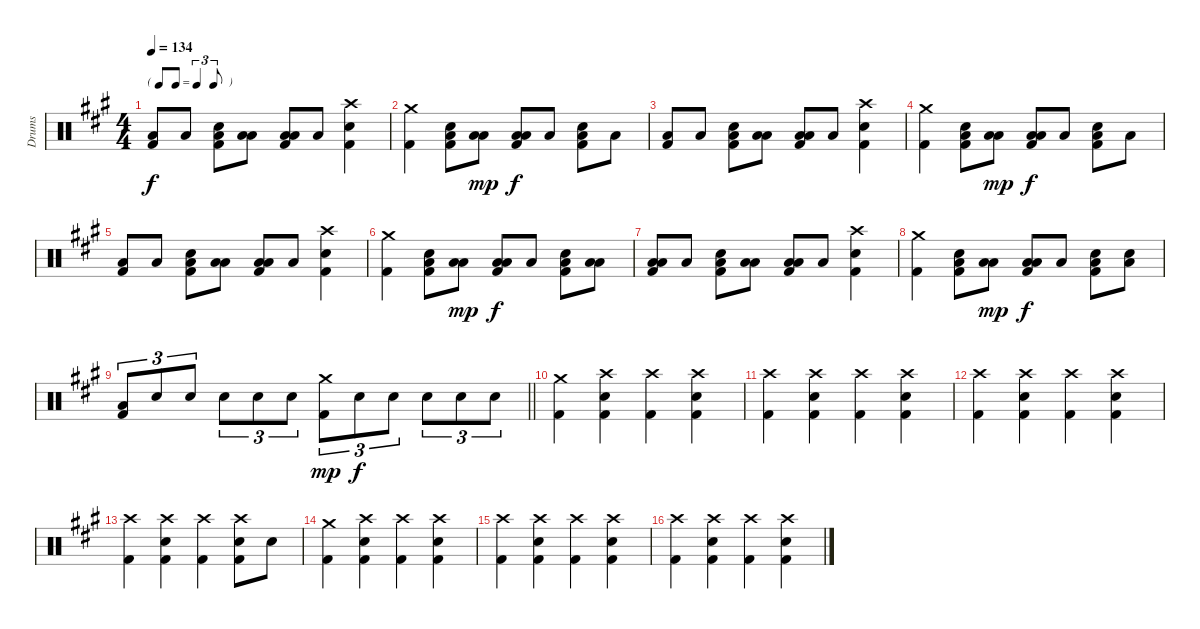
\track ("Drums" "Drums") {instrument percussion}
\staff {score}
\articulation defaults
\ts (4 4)
\tf triplet8th
\tempo 134
\clef neutral
\ks f#minor
("Low Floor Tom (hit)" "Kick (hit) 2").8{dy f} "Low Floor Tom (hit)".8 ("Electric Snare (hit)" "Low Floor Tom (hit)" "Kick (hit) 2").8 ("Low Tom (hit)" "Low Floor Tom (hit)").8 ("Low Tom (hit)" "Low Floor Tom (hit)" "Kick (hit) 2").8 "Low Floor Tom (hit)".8 ("Crash high (hit)" "Electric Snare (hit)" "Kick (hit) 2").4 |
("Crash medium (hit)" "Kick (hit) 2").4 ("Electric Snare (hit)" "Low Floor Tom (hit)" "Kick (hit) 2").8 ("Low Tom (hit)" "Low Floor Tom (hit)").8{dy mp} ("Low Tom (hit)" "Low Floor Tom (hit)" "Kick (hit) 2").8{dy f} "Low Floor Tom (hit)".8 ("Electric Snare (hit)" "Low Floor Tom (hit)" "Kick (hit) 2").8 "Low Floor Tom (hit)".8 |
("Low Floor Tom (hit)" "Kick (hit) 2").8 "Low Floor Tom (hit)".8 ("Electric Snare (hit)" "Low Floor Tom (hit)" "Kick (hit) 2").8 ("Low Tom (hit)" "Low Floor Tom (hit)").8 ("Low Tom (hit)" "Low Floor Tom (hit)" "Kick (hit) 2").8 "Low Floor Tom (hit)".8 ("Crash high (hit)" "Electric Snare (hit)" "Kick (hit) 2").4 |
("Crash medium (hit)" "Kick (hit) 2").4 ("Electric Snare (hit)" "Low Floor Tom (hit)" "Kick (hit) 2").8 ("Low Tom (hit)" "Low Floor Tom (hit)").8{dy mp} ("Low Tom (hit)" "Low Floor Tom (hit)" "Kick (hit) 2").8{dy f} "Low Floor Tom (hit)".8 ("Electric Snare (hit)" "Low Floor Tom (hit)" "Kick (hit) 2").8 "Low Floor Tom (hit)".8 |
("Low Floor Tom (hit)" "Kick (hit) 2").8 "Low Floor Tom (hit)".8 ("Electric Snare (hit)" "Low Floor Tom (hit)" "Kick (hit) 2").8 ("Low Tom (hit)" "Low Floor Tom (hit)").8 ("Low Tom (hit)" "Low Floor Tom (hit)" "Kick (hit) 2").8 "Low Floor Tom (hit)".8 ("Crash high (hit)" "Electric Snare (hit)" "Kick (hit) 2").4 |
("Crash medium (hit)" "Kick (hit) 2").4 ("Electric Snare (hit)" "Low Floor Tom (hit)" "Kick (hit) 2").8 ("Low Tom (hit)" "Low Floor Tom (hit)").8{dy mp} ("Low Tom (hit)" "Low Floor Tom (hit)" "Kick (hit) 2").8{dy f} "Low Floor Tom (hit)".8 ("Electric Snare (hit)" "Low Floor Tom (hit)" "Kick (hit) 2").8 ("Low Tom (hit)" "Low Floor Tom (hit)").8 |
("Low Tom (hit)" "Low Floor Tom (hit)" "Kick (hit) 2").8 "Low Floor Tom (hit)".8 ("Electric Snare (hit)" "Low Floor Tom (hit)" "Kick (hit) 2").8 ("Low Tom (hit)" "Low Floor Tom (hit)").8 ("Low Tom (hit)" "Low Floor Tom (hit)" "Kick (hit) 2").8 "Low Floor Tom (hit)".8 ("Crash high (hit)" "Electric Snare (hit)" "Kick (hit) 2").4 |
("Crash medium (hit)" "Kick (hit) 2").4 ("Electric Snare (hit)" "Low Floor Tom (hit)" "Kick (hit) 2").8 ("Low Tom (hit)" "Low Floor Tom (hit)").8{dy mp} ("Low Tom (hit)" "Low Floor Tom (hit)" "Kick (hit) 2").8{dy f} "Low Floor Tom (hit)".8 ("Electric Snare (hit)" "Low Floor Tom (hit)" "Kick (hit) 2").8 ("Electric Snare (hit)" "Low Floor Tom (hit)").8 |
\barLineRight lightlight
("Low Floor Tom (hit)" "Kick (hit) 2").8{tu (3 2)} "Electric Snare (hit)".8{tu (3 2)} "Electric Snare (hit)".8{tu (3 2)} "Electric Snare (hit)".8{tu (3 2)} "Electric Snare (hit)".8{tu (3 2)} "Electric Snare (hit)".8{tu (3 2)} ("Crash medium (hit)" "Kick (hit) 2").8{tu (3 2) dy mp} "Electric Snare (hit)".8{tu (3 2) dy f} "Electric Snare (hit)".8{tu (3 2)} "Electric Snare (hit)".8{tu (3 2)} "Electric Snare (hit)".8{tu (3 2)} "Electric Snare (hit)".8{tu (3 2)} |
("Crash medium (hit)" "Kick (hit) 2").4 ("Crash high (hit)" "Electric Snare (hit)" "Kick (hit) 2").4 ("Crash high (hit)" "Kick (hit) 2").4 ("Crash high (hit)" "Electric Snare (hit)" "Kick (hit) 2").4 |
("Crash high (hit)" "Kick (hit) 2").4 ("Crash high (hit)" "Electric Snare (hit)" "Kick (hit) 2").4 ("Crash high (hit)" "Kick (hit) 2").4 ("Crash high (hit)" "Electric Snare (hit)" "Kick (hit) 2").4 |
("Crash high (hit)" "Kick (hit) 2").4 ("Crash high (hit)" "Electric Snare (hit)" "Kick (hit) 2").4 ("Crash high (hit)" "Kick (hit) 2").4 ("Crash high (hit)" "Electric Snare (hit)" "Kick (hit) 2").4 |
("Crash high (hit)" "Kick (hit) 2").4 ("Crash high (hit)" "Electric Snare (hit)" "Kick (hit) 2").4 ("Crash high (hit)" "Kick (hit) 2").4 ("Crash high (hit)" "Electric Snare (hit)" "Kick (hit) 2").8 "Electric Snare (hit)".8 |
("Crash medium (hit)" "Kick (hit) 2").4 ("Crash high (hit)" "Electric Snare (hit)" "Kick (hit) 2").4 ("Crash high (hit)" "Kick (hit) 2").4 ("Crash high (hit)" "Electric Snare (hit)" "Kick (hit) 2").4 |
("Crash high (hit)" "Kick (hit) 2").4 ("Crash high (hit)" "Electric Snare (hit)" "Kick (hit) 2").4 ("Crash high (hit)" "Kick (hit) 2").4 ("Crash high (hit)" "Electric Snare (hit)" "Kick (hit) 2").4 |
("Crash high (hit)" "Kick (hit) 2").4 ("Crash high (hit)" "Electric Snare (hit)" "Kick (hit) 2").4 ("Crash high (hit)" "Kick (hit) 2").4 ("Crash high (hit)" "Electric Snare (hit)" "Kick (hit) 2").4
